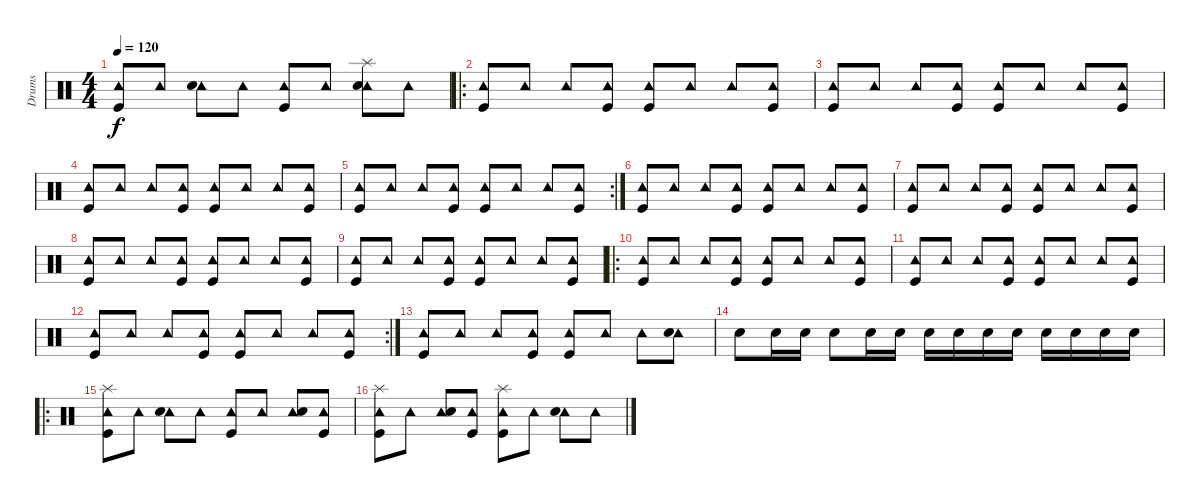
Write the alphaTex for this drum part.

\track ("Drums" "Drums") {instrument percussion}
\staff {score}
\articulation defaults
\ts (4 4)
\tempo 120
\clef neutral
\ks c
("Tambourine (hit)" "Kick (hit)").8{dy f} "Tambourine (hit)".8 ("Tambourine (hit)" "Snare (hit) 2").8 "Tambourine (hit)".8 ("Tambourine (hit)" "Kick (hit)").8 "Tambourine (hit)".8 ("Tambourine (hit)" "Snare (hit) 2" "Splash (hit)").8 "Tambourine (hit)".8 |
\ro
("Tambourine (hit)" "Kick (hit)").8 "Tambourine (hit)".8 "Tambourine (hit)".8 ("Tambourine (hit)" "Kick (hit)").8 ("Tambourine (hit)" "Kick (hit)").8 "Tambourine (hit)".8 "Tambourine (hit)".8 ("Tambourine (hit)" "Kick (hit)").8 |
("Tambourine (hit)" "Kick (hit)").8 "Tambourine (hit)".8 "Tambourine (hit)".8 ("Tambourine (hit)" "Kick (hit)").8 ("Tambourine (hit)" "Kick (hit)").8 "Tambourine (hit)".8 "Tambourine (hit)".8 ("Tambourine (hit)" "Kick (hit)").8 |
("Tambourine (hit)" "Kick (hit)").8 "Tambourine (hit)".8 "Tambourine (hit)".8 ("Tambourine (hit)" "Kick (hit)").8 ("Tambourine (hit)" "Kick (hit)").8 "Tambourine (hit)".8 "Tambourine (hit)".8 ("Tambourine (hit)" "Kick (hit)").8 |
\rc 2
("Tambourine (hit)" "Kick (hit)").8 "Tambourine (hit)".8 "Tambourine (hit)".8 ("Tambourine (hit)" "Kick (hit)").8 ("Tambourine (hit)" "Kick (hit)").8 "Tambourine (hit)".8 "Tambourine (hit)".8 ("Tambourine (hit)" "Kick (hit)").8 |
("Tambourine (hit)" "Kick (hit)").8 "Tambourine (hit)".8 "Tambourine (hit)".8 ("Tambourine (hit)" "Kick (hit)").8 ("Tambourine (hit)" "Kick (hit)").8 "Tambourine (hit)".8 "Tambourine (hit)".8 ("Tambourine (hit)" "Kick (hit)").8 |
("Tambourine (hit)" "Kick (hit)").8 "Tambourine (hit)".8 "Tambourine (hit)".8 ("Tambourine (hit)" "Kick (hit)").8 ("Tambourine (hit)" "Kick (hit)").8 "Tambourine (hit)".8 "Tambourine (hit)".8 ("Tambourine (hit)" "Kick (hit)").8 |
("Tambourine (hit)" "Kick (hit)").8 "Tambourine (hit)".8 "Tambourine (hit)".8 ("Tambourine (hit)" "Kick (hit)").8 ("Tambourine (hit)" "Kick (hit)").8 "Tambourine (hit)".8 "Tambourine (hit)".8 ("Tambourine (hit)" "Kick (hit)").8 |
("Tambourine (hit)" "Kick (hit)").8 "Tambourine (hit)".8 "Tambourine (hit)".8 ("Tambourine (hit)" "Kick (hit)").8 ("Tambourine (hit)" "Kick (hit)").8 "Tambourine (hit)".8 "Tambourine (hit)".8 ("Tambourine (hit)" "Kick (hit)").8 |
\ro
("Tambourine (hit)" "Kick (hit)").8 "Tambourine (hit)".8 "Tambourine (hit)".8 ("Tambourine (hit)" "Kick (hit)").8 ("Tambourine (hit)" "Kick (hit)").8 "Tambourine (hit)".8 "Tambourine (hit)".8 ("Tambourine (hit)" "Kick (hit)").8 |
("Tambourine (hit)" "Kick (hit)").8 "Tambourine (hit)".8 "Tambourine (hit)".8 ("Tambourine (hit)" "Kick (hit)").8 ("Tambourine (hit)" "Kick (hit)").8 "Tambourine (hit)".8 "Tambourine (hit)".8 ("Tambourine (hit)" "Kick (hit)").8 |
\rc 2
("Tambourine (hit)" "Kick (hit)").8 "Tambourine (hit)".8 "Tambourine (hit)".8 ("Tambourine (hit)" "Kick (hit)").8 ("Tambourine (hit)" "Kick (hit)").8 "Tambourine (hit)".8 "Tambourine (hit)".8 ("Tambourine (hit)" "Kick (hit)").8 |
("Tambourine (hit)" "Kick (hit)").8 "Tambourine (hit)".8 "Tambourine (hit)".8 ("Tambourine (hit)" "Kick (hit)").8 ("Tambourine (hit)" "Kick (hit)").8 "Tambourine (hit)".8 "Tambourine (hit)".8 ("Tambourine (hit)" "Snare (hit) 2").8 |
"Snare (hit) 2".8 "Snare (hit) 2".16 "Snare (hit) 2".16 "Snare (hit) 2".8 "Snare (hit) 2".16 "Snare (hit) 2".16 "Snare (hit) 2".16 "Snare (hit) 2".16 "Snare (hit) 2".16 "Snare (hit) 2".16 "Snare (hit) 2".16 "Snare (hit) 2".16 "Snare (hit) 2".16 "Snare (hit) 2".16 |
\ro
("Tambourine (hit)" "Kick (hit)" "Splash (hit)").8 "Tambourine (hit)".8 ("Tambourine (hit)" "Snare (hit) 2").8 "Tambourine (hit)".8 ("Tambourine (hit)" "Kick (hit)").8 "Tambourine (hit)".8 ("Tambourine (hit)" "Snare (hit) 2").8 ("Tambourine (hit)" "Kick (hit)").8 |
("Tambourine (hit)" "Kick (hit)" "Splash (hit)").8 "Tambourine (hit)".8 ("Tambourine (hit)" "Snare (hit) 2").8 ("Tambourine (hit)" "Kick (hit)").8 ("Tambourine (hit)" "Kick (hit)" "Splash (hit)").8 "Tambourine (hit)".8 ("Tambourine (hit)" "Snare (hit) 2").8 "Tambourine (hit)".8
